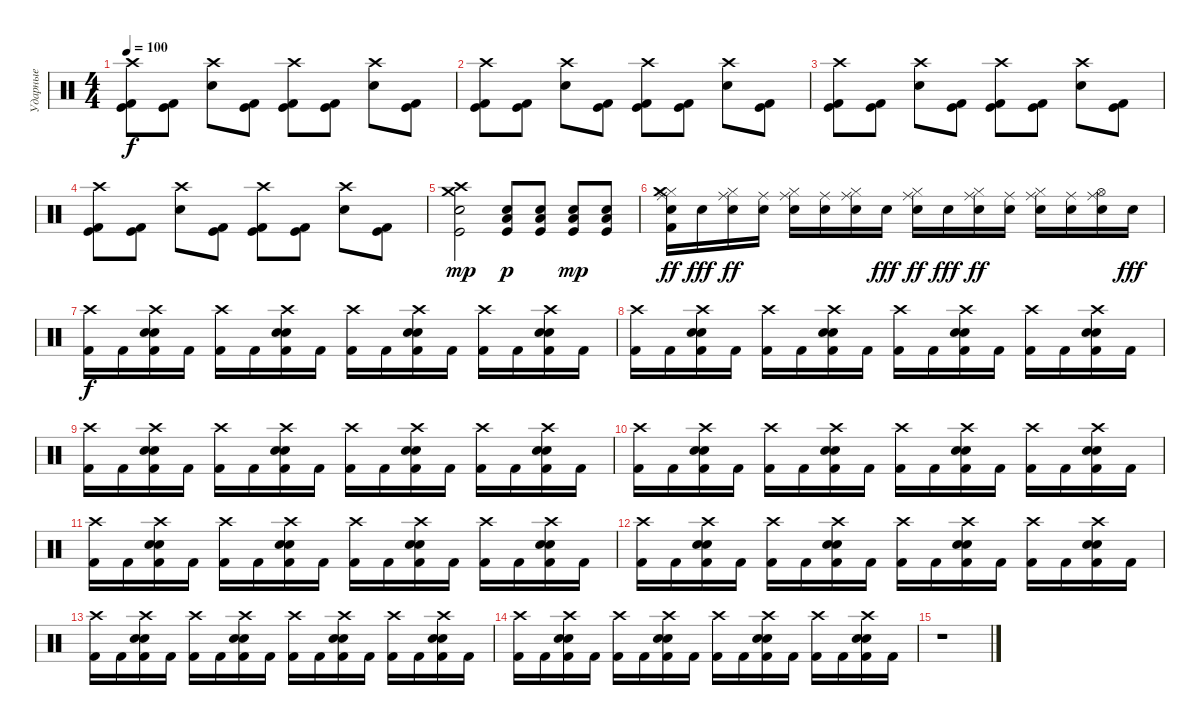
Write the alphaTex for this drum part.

\track ("Ударные" "Ударные") {instrument percussion}
\staff {score}
\articulation defaults
\ts (4 4)
\tempo 100
\clef neutral
\ks c
("Kick (hit) 2" "Kick (hit)" "Crash high (hit)").8{dy f} ("Kick (hit) 2" "Kick (hit)").8 ("Electric Snare (hit)" "Crash high (hit)").8 ("Kick (hit) 2" "Kick (hit)").8 ("Kick (hit) 2" "Kick (hit)" "Crash high (hit)").8 ("Kick (hit) 2" "Kick (hit)").8 ("Electric Snare (hit)" "Crash high (hit)").8 ("Kick (hit) 2" "Kick (hit)").8 |
("Kick (hit) 2" "Kick (hit)" "Crash high (hit)").8 ("Kick (hit) 2" "Kick (hit)").8 ("Electric Snare (hit)" "Crash high (hit)").8 ("Kick (hit) 2" "Kick (hit)").8 ("Kick (hit) 2" "Kick (hit)" "Crash high (hit)").8 ("Kick (hit) 2" "Kick (hit)").8 ("Electric Snare (hit)" "Crash high (hit)").8 ("Kick (hit) 2" "Kick (hit)").8 |
("Kick (hit) 2" "Kick (hit)" "Crash high (hit)").8 ("Kick (hit) 2" "Kick (hit)").8 ("Electric Snare (hit)" "Crash high (hit)").8 ("Kick (hit) 2" "Kick (hit)").8 ("Kick (hit) 2" "Kick (hit)" "Crash high (hit)").8 ("Kick (hit) 2" "Kick (hit)").8 ("Electric Snare (hit)" "Crash high (hit)").8 ("Kick (hit) 2" "Kick (hit)").8 |
("Kick (hit) 2" "Kick (hit)" "Crash high (hit)").8 ("Kick (hit) 2" "Kick (hit)").8 ("Electric Snare (hit)" "Crash high (hit)").8 ("Kick (hit) 2" "Kick (hit)").8 ("Kick (hit) 2" "Kick (hit)" "Crash high (hit)").8 ("Kick (hit) 2" "Kick (hit)").8 ("Electric Snare (hit)" "Crash high (hit)").8 ("Kick (hit) 2" "Kick (hit)").8 |
("Crash medium (hit)" "Crash high (hit)" "Electric Snare (hit)" "Kick (hit)").2{dy mp} ("Low Tom (hit)" "Electric Snare (hit)" "Kick (hit)").8{dy p} ("Low Tom (hit)" "Electric Snare (hit)" "Kick (hit)").8 ("Low Tom (hit)" "Electric Snare (hit)" "Kick (hit)").8{dy mp} ("Low Tom (hit)" "Electric Snare (hit)" "Kick (hit)").8 |
("Kick (hit) 2" "Snare (hit) 2" "Hi-Hat (closed)" "Ride (middle)" "Crash medium (hit)").16{dy ff} "Snare (hit) 2".16{dy fff} ("Snare (hit) 2" "Hi-Hat (closed)" "Ride (middle)").16{dy ff} ("Snare (hit) 2" "Ride (middle)").16 ("Snare (hit) 2" "Hi-Hat (closed)" "Ride (middle)").16 ("Snare (hit) 2" "Ride (middle)").16 ("Snare (hit) 2" "Hi-Hat (closed)" "Ride (middle)").16 "Snare (hit) 2".16{dy fff} ("Snare (hit) 2" "Hi-Hat (closed)" "Ride (middle)").16{dy ff} "Snare (hit) 2".16{dy fff} ("Snare (hit) 2" "Hi-Hat (closed)" "Ride (middle)").16{dy ff} ("Snare (hit) 2" "Ride (middle)").16 ("Snare (hit) 2" "Hi-Hat (closed)" "Ride (middle)").16 ("Snare (hit) 2" "Ride (middle)").16 ("Snare (hit) 2" "Hi-Hat (open)" "Ride (middle)").16 "Snare (hit) 2".16{dy fff} |
("Crash high (hit)" "Kick (hit) 2").16{dy f} "Kick (hit) 2".16 ("Crash high (hit)" "Snare (hit) 2" "Electric Snare (hit)" "Kick (hit) 2").16 "Kick (hit) 2".16 ("Crash high (hit)" "Kick (hit) 2").16 "Kick (hit) 2".16 ("Crash high (hit)" "Snare (hit) 2" "Electric Snare (hit)" "Kick (hit) 2").16 "Kick (hit) 2".16 ("Crash high (hit)" "Kick (hit) 2").16 "Kick (hit) 2".16 ("Crash high (hit)" "Snare (hit) 2" "Electric Snare (hit)" "Kick (hit) 2").16 "Kick (hit) 2".16 ("Crash high (hit)" "Kick (hit) 2").16 "Kick (hit) 2".16 ("Crash high (hit)" "Snare (hit) 2" "Electric Snare (hit)" "Kick (hit) 2").16 "Kick (hit) 2".16 |
("Crash high (hit)" "Kick (hit) 2").16 "Kick (hit) 2".16 ("Crash high (hit)" "Snare (hit) 2" "Electric Snare (hit)" "Kick (hit) 2").16 "Kick (hit) 2".16 ("Crash high (hit)" "Kick (hit) 2").16 "Kick (hit) 2".16 ("Crash high (hit)" "Snare (hit) 2" "Electric Snare (hit)" "Kick (hit) 2").16 "Kick (hit) 2".16 ("Crash high (hit)" "Kick (hit) 2").16 "Kick (hit) 2".16 ("Crash high (hit)" "Snare (hit) 2" "Electric Snare (hit)" "Kick (hit) 2").16 "Kick (hit) 2".16 ("Crash high (hit)" "Kick (hit) 2").16 "Kick (hit) 2".16 ("Crash high (hit)" "Snare (hit) 2" "Electric Snare (hit)" "Kick (hit) 2").16 "Kick (hit) 2".16 |
("Crash high (hit)" "Kick (hit) 2").16 "Kick (hit) 2".16 ("Crash high (hit)" "Snare (hit) 2" "Electric Snare (hit)" "Kick (hit) 2").16 "Kick (hit) 2".16 ("Crash high (hit)" "Kick (hit) 2").16 "Kick (hit) 2".16 ("Crash high (hit)" "Snare (hit) 2" "Electric Snare (hit)" "Kick (hit) 2").16 "Kick (hit) 2".16 ("Crash high (hit)" "Kick (hit) 2").16 "Kick (hit) 2".16 ("Crash high (hit)" "Snare (hit) 2" "Electric Snare (hit)" "Kick (hit) 2").16 "Kick (hit) 2".16 ("Crash high (hit)" "Kick (hit) 2").16 "Kick (hit) 2".16 ("Crash high (hit)" "Snare (hit) 2" "Electric Snare (hit)" "Kick (hit) 2").16 "Kick (hit) 2".16 |
("Crash high (hit)" "Kick (hit) 2").16 "Kick (hit) 2".16 ("Crash high (hit)" "Snare (hit) 2" "Electric Snare (hit)" "Kick (hit) 2").16 "Kick (hit) 2".16 ("Crash high (hit)" "Kick (hit) 2").16 "Kick (hit) 2".16 ("Crash high (hit)" "Snare (hit) 2" "Electric Snare (hit)" "Kick (hit) 2").16 "Kick (hit) 2".16 ("Crash high (hit)" "Kick (hit) 2").16 "Kick (hit) 2".16 ("Crash high (hit)" "Snare (hit) 2" "Electric Snare (hit)" "Kick (hit) 2").16 "Kick (hit) 2".16 ("Crash high (hit)" "Kick (hit) 2").16 "Kick (hit) 2".16 ("Crash high (hit)" "Snare (hit) 2" "Electric Snare (hit)" "Kick (hit) 2").16 "Kick (hit) 2".16 |
("Crash high (hit)" "Kick (hit) 2").16 "Kick (hit) 2".16 ("Crash high (hit)" "Snare (hit) 2" "Electric Snare (hit)" "Kick (hit) 2").16 "Kick (hit) 2".16 ("Crash high (hit)" "Kick (hit) 2").16 "Kick (hit) 2".16 ("Crash high (hit)" "Snare (hit) 2" "Electric Snare (hit)" "Kick (hit) 2").16 "Kick (hit) 2".16 ("Crash high (hit)" "Kick (hit) 2").16 "Kick (hit) 2".16 ("Crash high (hit)" "Snare (hit) 2" "Electric Snare (hit)" "Kick (hit) 2").16 "Kick (hit) 2".16 ("Crash high (hit)" "Kick (hit) 2").16 "Kick (hit) 2".16 ("Crash high (hit)" "Snare (hit) 2" "Electric Snare (hit)" "Kick (hit) 2").16 "Kick (hit) 2".16 |
("Crash high (hit)" "Kick (hit) 2").16 "Kick (hit) 2".16 ("Crash high (hit)" "Snare (hit) 2" "Electric Snare (hit)" "Kick (hit) 2").16 "Kick (hit) 2".16 ("Crash high (hit)" "Kick (hit) 2").16 "Kick (hit) 2".16 ("Crash high (hit)" "Snare (hit) 2" "Electric Snare (hit)" "Kick (hit) 2").16 "Kick (hit) 2".16 ("Crash high (hit)" "Kick (hit) 2").16 "Kick (hit) 2".16 ("Crash high (hit)" "Snare (hit) 2" "Electric Snare (hit)" "Kick (hit) 2").16 "Kick (hit) 2".16 ("Crash high (hit)" "Kick (hit) 2").16 "Kick (hit) 2".16 ("Crash high (hit)" "Snare (hit) 2" "Electric Snare (hit)" "Kick (hit) 2").16 "Kick (hit) 2".16 |
("Crash high (hit)" "Kick (hit) 2").16 "Kick (hit) 2".16 ("Crash high (hit)" "Snare (hit) 2" "Electric Snare (hit)" "Kick (hit) 2").16 "Kick (hit) 2".16 ("Crash high (hit)" "Kick (hit) 2").16 "Kick (hit) 2".16 ("Crash high (hit)" "Snare (hit) 2" "Electric Snare (hit)" "Kick (hit) 2").16 "Kick (hit) 2".16 ("Crash high (hit)" "Kick (hit) 2").16 "Kick (hit) 2".16 ("Crash high (hit)" "Snare (hit) 2" "Electric Snare (hit)" "Kick (hit) 2").16 "Kick (hit) 2".16 ("Crash high (hit)" "Kick (hit) 2").16 "Kick (hit) 2".16 ("Crash high (hit)" "Snare (hit) 2" "Electric Snare (hit)" "Kick (hit) 2").16 "Kick (hit) 2".16 |
("Crash high (hit)" "Kick (hit) 2").16 "Kick (hit) 2".16 ("Crash high (hit)" "Snare (hit) 2" "Electric Snare (hit)" "Kick (hit) 2").16 "Kick (hit) 2".16 ("Crash high (hit)" "Kick (hit) 2").16 "Kick (hit) 2".16 ("Crash high (hit)" "Snare (hit) 2" "Electric Snare (hit)" "Kick (hit) 2").16 "Kick (hit) 2".16 ("Crash high (hit)" "Kick (hit) 2").16 "Kick (hit) 2".16 ("Crash high (hit)" "Snare (hit) 2" "Electric Snare (hit)" "Kick (hit) 2").16 "Kick (hit) 2".16 ("Crash high (hit)" "Kick (hit) 2").16 "Kick (hit) 2".16 ("Crash high (hit)" "Snare (hit) 2" "Electric Snare (hit)" "Kick (hit) 2").16 "Kick (hit) 2".16 |
r.1
